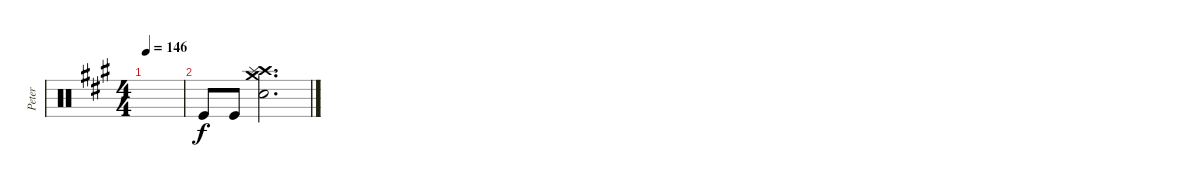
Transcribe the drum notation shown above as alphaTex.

\track ("Peter" "Peter") {instrument percussion}
\staff {score}
\articulation defaults
\ts (4 4)
\tempo 146
\clef neutral
\ks a
|
"Kick (hit)".8 "Kick (hit)".8 ("Crash high (hit)" "Splash (hit)" "Crash medium (hit)" "Snare (hit) 2").2{d}
